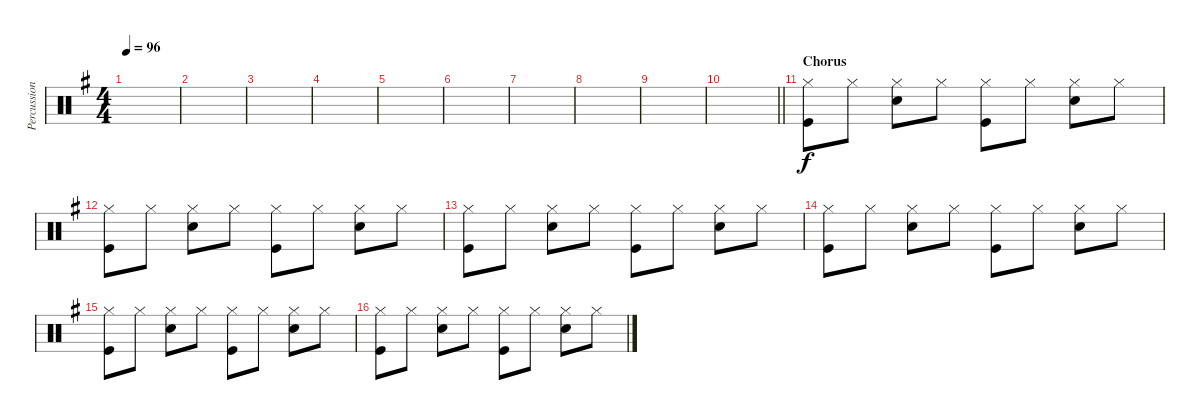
\track ("Percussion" "Percussion") {instrument percussion}
\staff {score}
\articulation defaults
\ts (4 4)
\tempo 96
\clef neutral
\ks g
|
|
|
|
|
|
|
|
|
\barLineRight lightlight
|
\section ("" "Chorus")
("Hi-Hat (closed)" "Kick (hit)").8 "Hi-Hat (closed)".8 ("Hi-Hat (closed)" "Snare (hit) 2").8 "Hi-Hat (closed)".8 ("Hi-Hat (closed)" "Kick (hit)").8 "Hi-Hat (closed)".8 ("Hi-Hat (closed)" "Snare (hit) 2").8 "Hi-Hat (closed)".8 |
("Hi-Hat (closed)" "Kick (hit)").8 "Hi-Hat (closed)".8 ("Hi-Hat (closed)" "Snare (hit) 2").8 "Hi-Hat (closed)".8 ("Hi-Hat (closed)" "Kick (hit)").8 "Hi-Hat (closed)".8 ("Hi-Hat (closed)" "Snare (hit) 2").8 "Hi-Hat (closed)".8 |
("Hi-Hat (closed)" "Kick (hit)").8 "Hi-Hat (closed)".8 ("Hi-Hat (closed)" "Snare (hit) 2").8 "Hi-Hat (closed)".8 ("Hi-Hat (closed)" "Kick (hit)").8 "Hi-Hat (closed)".8 ("Hi-Hat (closed)" "Snare (hit) 2").8 "Hi-Hat (closed)".8 |
("Hi-Hat (closed)" "Kick (hit)").8 "Hi-Hat (closed)".8 ("Hi-Hat (closed)" "Snare (hit) 2").8 "Hi-Hat (closed)".8 ("Hi-Hat (closed)" "Kick (hit)").8 "Hi-Hat (closed)".8 ("Hi-Hat (closed)" "Snare (hit) 2").8 "Hi-Hat (closed)".8 |
("Hi-Hat (closed)" "Kick (hit)").8 "Hi-Hat (closed)".8 ("Hi-Hat (closed)" "Snare (hit) 2").8 "Hi-Hat (closed)".8 ("Hi-Hat (closed)" "Kick (hit)").8 "Hi-Hat (closed)".8 ("Hi-Hat (closed)" "Snare (hit) 2").8 "Hi-Hat (closed)".8 |
("Hi-Hat (closed)" "Kick (hit)").8 "Hi-Hat (closed)".8 ("Hi-Hat (closed)" "Snare (hit) 2").8 "Hi-Hat (closed)".8 ("Hi-Hat (closed)" "Kick (hit)").8 "Hi-Hat (closed)".8 ("Hi-Hat (closed)" "Snare (hit) 2").8 "Hi-Hat (closed)".8
